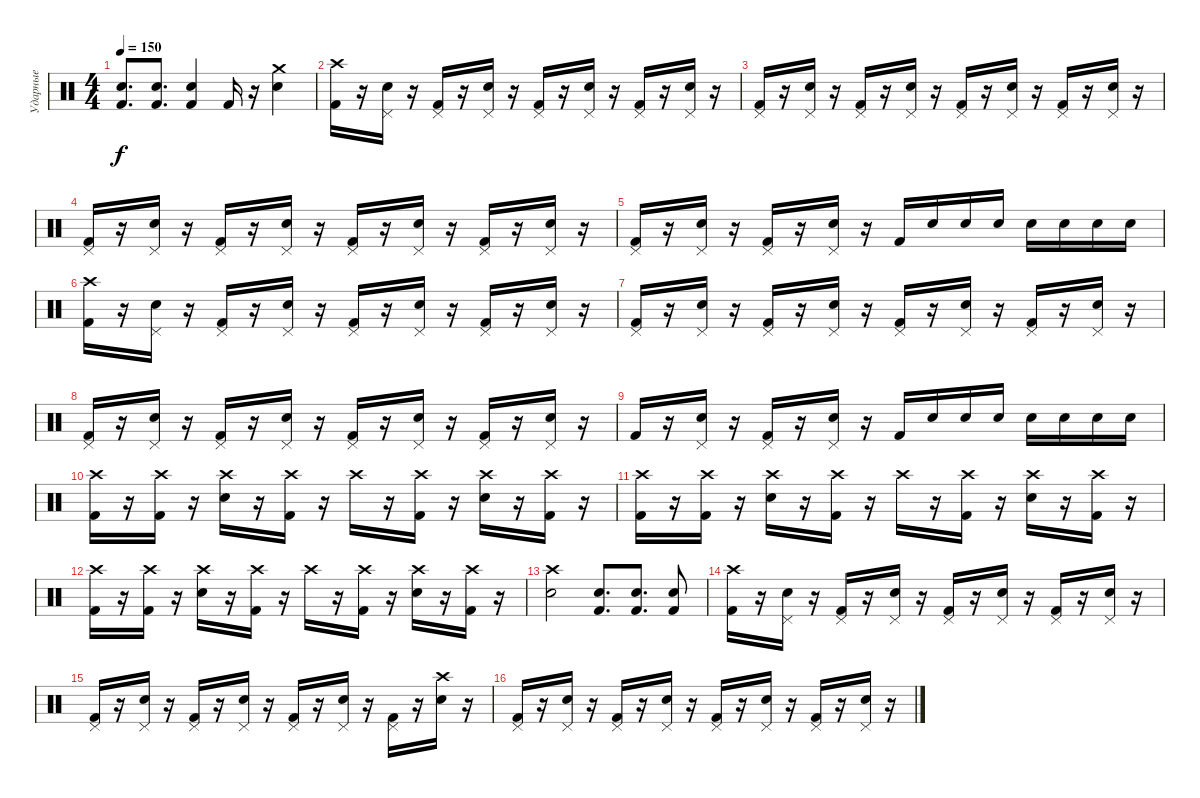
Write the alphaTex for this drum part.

\track ("Ударные" "Ударные") {instrument percussion}
\staff {score}
\articulation defaults
\ts (4 4)
\tempo 150
\clef neutral
\ks c
("Electric Snare (hit)" "Kick (hit) 2").8{d dy f} ("Electric Snare (hit)" "Kick (hit) 2").8{d} ("Electric Snare (hit)" "Kick (hit) 2").4 "Kick (hit) 2".16 r.16 ("Electric Snare (hit)" "Crash medium (hit)").4 |
("Kick (hit) 2" "Crash high (hit)").16 r.16 ("Electric Snare (hit)" "Pedal Hi-Hat (hit)").16 r.16 ("Kick (hit) 2" "Pedal Hi-Hat (hit)").16 r.16 ("Electric Snare (hit)" "Pedal Hi-Hat (hit)").16 r.16 ("Kick (hit) 2" "Pedal Hi-Hat (hit)").16 r.16 ("Electric Snare (hit)" "Pedal Hi-Hat (hit)").16 r.16 ("Kick (hit) 2" "Pedal Hi-Hat (hit)").16 r.16 ("Electric Snare (hit)" "Pedal Hi-Hat (hit)").16 r.16 |
("Kick (hit) 2" "Pedal Hi-Hat (hit)").16 r.16 ("Electric Snare (hit)" "Pedal Hi-Hat (hit)").16 r.16 ("Kick (hit) 2" "Pedal Hi-Hat (hit)").16 r.16 ("Electric Snare (hit)" "Pedal Hi-Hat (hit)").16 r.16 ("Kick (hit) 2" "Pedal Hi-Hat (hit)").16 r.16 ("Electric Snare (hit)" "Pedal Hi-Hat (hit)").16 r.16 ("Kick (hit) 2" "Pedal Hi-Hat (hit)").16 r.16 ("Electric Snare (hit)" "Pedal Hi-Hat (hit)").16 r.16 |
("Kick (hit) 2" "Pedal Hi-Hat (hit)").16 r.16 ("Electric Snare (hit)" "Pedal Hi-Hat (hit)").16 r.16 ("Kick (hit) 2" "Pedal Hi-Hat (hit)").16 r.16 ("Electric Snare (hit)" "Pedal Hi-Hat (hit)").16 r.16 ("Kick (hit) 2" "Pedal Hi-Hat (hit)").16 r.16 ("Electric Snare (hit)" "Pedal Hi-Hat (hit)").16 r.16 ("Kick (hit) 2" "Pedal Hi-Hat (hit)").16 r.16 ("Electric Snare (hit)" "Pedal Hi-Hat (hit)").16 r.16 |
("Kick (hit) 2" "Pedal Hi-Hat (hit)").16 r.16 ("Electric Snare (hit)" "Pedal Hi-Hat (hit)").16 r.16 ("Kick (hit) 2" "Pedal Hi-Hat (hit)").16 r.16 ("Electric Snare (hit)" "Pedal Hi-Hat (hit)").16 r.16 "Kick (hit) 2".16 "Electric Snare (hit)".16 "Electric Snare (hit)".16 "Electric Snare (hit)".16 "Electric Snare (hit)".16 "Electric Snare (hit)".16 "Electric Snare (hit)".16 "Electric Snare (hit)".16 |
("Kick (hit) 2" "Crash high (hit)").16 r.16 ("Electric Snare (hit)" "Pedal Hi-Hat (hit)").16 r.16 ("Kick (hit) 2" "Pedal Hi-Hat (hit)").16 r.16 ("Electric Snare (hit)" "Pedal Hi-Hat (hit)").16 r.16 ("Kick (hit) 2" "Pedal Hi-Hat (hit)").16 r.16 ("Electric Snare (hit)" "Pedal Hi-Hat (hit)").16 r.16 ("Kick (hit) 2" "Pedal Hi-Hat (hit)").16 r.16 ("Electric Snare (hit)" "Pedal Hi-Hat (hit)").16 r.16 |
("Kick (hit) 2" "Pedal Hi-Hat (hit)").16 r.16 ("Electric Snare (hit)" "Pedal Hi-Hat (hit)").16 r.16 ("Kick (hit) 2" "Pedal Hi-Hat (hit)").16 r.16 ("Electric Snare (hit)" "Pedal Hi-Hat (hit)").16 r.16 ("Kick (hit) 2" "Pedal Hi-Hat (hit)").16 r.16 ("Electric Snare (hit)" "Pedal Hi-Hat (hit)").16 r.16 ("Kick (hit) 2" "Pedal Hi-Hat (hit)").16 r.16 ("Electric Snare (hit)" "Pedal Hi-Hat (hit)").16 r.16 |
("Kick (hit) 2" "Pedal Hi-Hat (hit)").16 r.16 ("Electric Snare (hit)" "Pedal Hi-Hat (hit)").16 r.16 ("Kick (hit) 2" "Pedal Hi-Hat (hit)").16 r.16 ("Electric Snare (hit)" "Pedal Hi-Hat (hit)").16 r.16 ("Kick (hit) 2" "Pedal Hi-Hat (hit)").16 r.16 ("Electric Snare (hit)" "Pedal Hi-Hat (hit)").16 r.16 ("Kick (hit) 2" "Pedal Hi-Hat (hit)").16 r.16 ("Electric Snare (hit)" "Pedal Hi-Hat (hit)").16 r.16 |
"Kick (hit) 2".16 r.16 ("Electric Snare (hit)" "Pedal Hi-Hat (hit)").16 r.16 ("Kick (hit) 2" "Pedal Hi-Hat (hit)").16 r.16 ("Electric Snare (hit)" "Pedal Hi-Hat (hit)").16 r.16 "Kick (hit) 2".16 "Electric Snare (hit)".16 "Electric Snare (hit)".16 "Electric Snare (hit)".16 "Electric Snare (hit)".16 "Electric Snare (hit)".16 "Electric Snare (hit)".16 "Electric Snare (hit)".16 |
("Kick (hit) 2" "Crash high (hit)").16 r.16 ("Kick (hit) 2" "Crash high (hit)").16 r.16 ("Electric Snare (hit)" "Crash high (hit)").16 r.16 ("Kick (hit) 2" "Crash high (hit)").16 r.16 "Crash high (hit)".16 r.16 ("Kick (hit) 2" "Crash high (hit)").16 r.16 ("Electric Snare (hit)" "Crash high (hit)").16 r.16 ("Kick (hit) 2" "Crash high (hit)").16 r.16 |
("Kick (hit) 2" "Crash high (hit)").16 r.16 ("Kick (hit) 2" "Crash high (hit)").16 r.16 ("Electric Snare (hit)" "Crash high (hit)").16 r.16 ("Kick (hit) 2" "Crash high (hit)").16 r.16 "Crash high (hit)".16 r.16 ("Kick (hit) 2" "Crash high (hit)").16 r.16 ("Electric Snare (hit)" "Crash high (hit)").16 r.16 ("Kick (hit) 2" "Crash high (hit)").16 r.16 |
("Kick (hit) 2" "Crash high (hit)").16 r.16 ("Kick (hit) 2" "Crash high (hit)").16 r.16 ("Electric Snare (hit)" "Crash high (hit)").16 r.16 ("Kick (hit) 2" "Crash high (hit)").16 r.16 "Crash high (hit)".16 r.16 ("Kick (hit) 2" "Crash high (hit)").16 r.16 ("Electric Snare (hit)" "Crash high (hit)").16 r.16 ("Kick (hit) 2" "Crash high (hit)").16 r.16 |
("Electric Snare (hit)" "Crash high (hit)").2 ("Electric Snare (hit)" "Kick (hit) 2").8{d} ("Electric Snare (hit)" "Kick (hit) 2").8{d} ("Electric Snare (hit)" "Kick (hit) 2").8 |
("Kick (hit) 2" "Crash high (hit)").16 r.16 ("Electric Snare (hit)" "Pedal Hi-Hat (hit)").16 r.16 ("Kick (hit) 2" "Pedal Hi-Hat (hit)").16 r.16 ("Electric Snare (hit)" "Pedal Hi-Hat (hit)").16 r.16 ("Kick (hit) 2" "Pedal Hi-Hat (hit)").16 r.16 ("Electric Snare (hit)" "Pedal Hi-Hat (hit)").16 r.16 ("Kick (hit) 2" "Pedal Hi-Hat (hit)").16 r.16 ("Electric Snare (hit)" "Pedal Hi-Hat (hit)").16 r.16 |
("Kick (hit) 2" "Pedal Hi-Hat (hit)").16 r.16 ("Electric Snare (hit)" "Pedal Hi-Hat (hit)").16 r.16 ("Kick (hit) 2" "Pedal Hi-Hat (hit)").16 r.16 ("Electric Snare (hit)" "Pedal Hi-Hat (hit)").16 r.16 ("Kick (hit) 2" "Pedal Hi-Hat (hit)").16 r.16 ("Electric Snare (hit)" "Pedal Hi-Hat (hit)").16 r.16 ("Kick (hit) 2" "Pedal Hi-Hat (hit)").16 r.16 ("Electric Snare (hit)" "Crash high (hit)").16 r.16 |
("Kick (hit) 2" "Pedal Hi-Hat (hit)").16 r.16 ("Electric Snare (hit)" "Pedal Hi-Hat (hit)").16 r.16 ("Kick (hit) 2" "Pedal Hi-Hat (hit)").16 r.16 ("Electric Snare (hit)" "Pedal Hi-Hat (hit)").16 r.16 ("Kick (hit) 2" "Pedal Hi-Hat (hit)").16 r.16 ("Electric Snare (hit)" "Pedal Hi-Hat (hit)").16 r.16 ("Kick (hit) 2" "Pedal Hi-Hat (hit)").16 r.16 ("Electric Snare (hit)" "Pedal Hi-Hat (hit)").16 r.16
